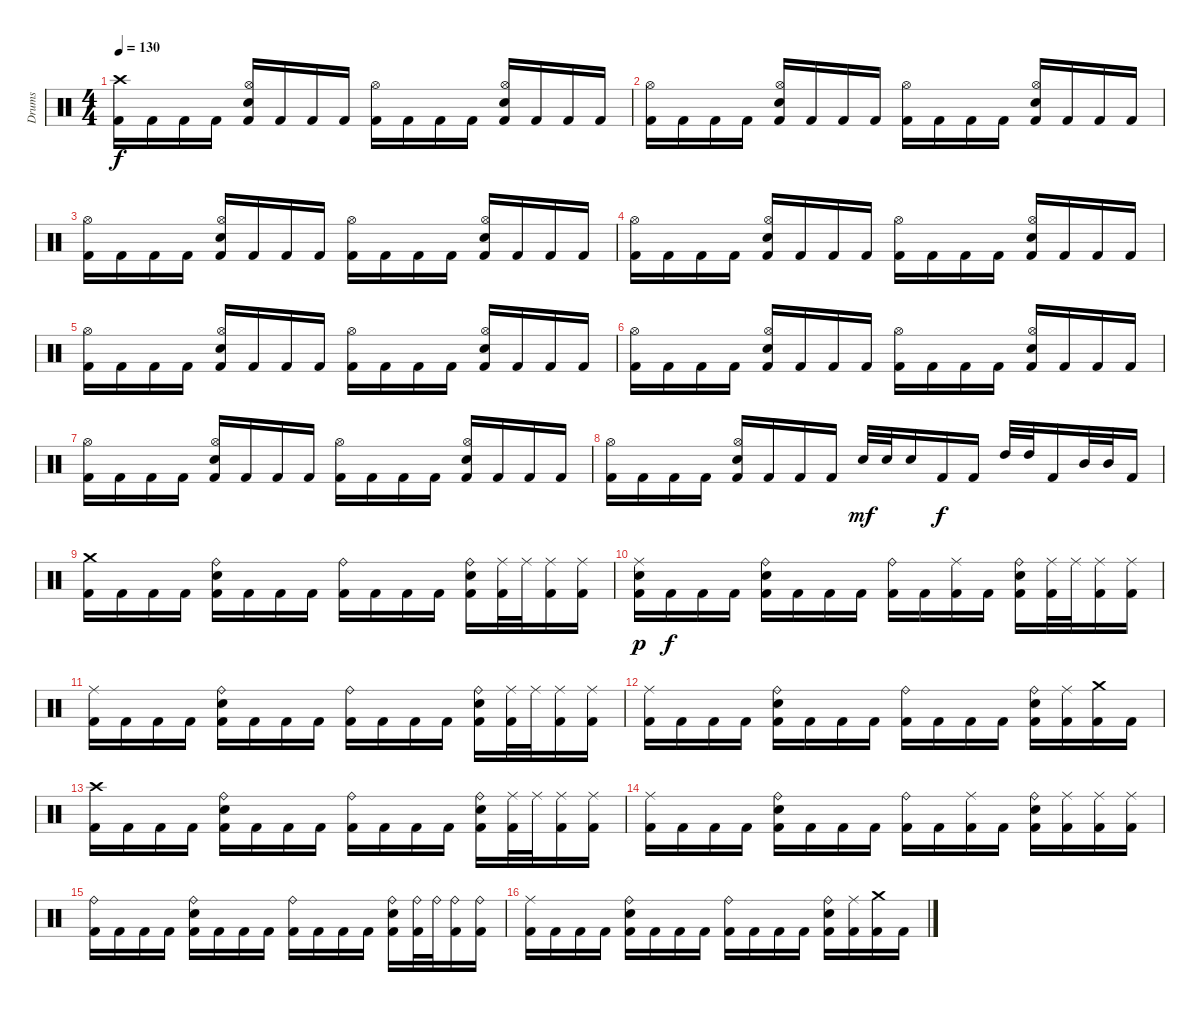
\track ("Drums" "Drums") {instrument percussion}
\staff {score}
\articulation defaults
\ts (4 4)
\tempo 130
\clef neutral
\ks c
("Crash high (hit)" "Kick (hit) 2").16{dy f} "Kick (hit) 2".16 "Kick (hit) 2".16 "Kick (hit) 2".16 ("Hi-Hat (open)" "Snare (hit) 2" "Kick (hit) 2").16 "Kick (hit) 2".16 "Kick (hit) 2".16 "Kick (hit) 2".16 ("Hi-Hat (open)" "Kick (hit) 2").16 "Kick (hit) 2".16 "Kick (hit) 2".16 "Kick (hit) 2".16 ("Hi-Hat (open)" "Snare (hit) 2" "Kick (hit) 2").16 "Kick (hit) 2".16 "Kick (hit) 2".16 "Kick (hit) 2".16 |
("Hi-Hat (open)" "Kick (hit) 2").16 "Kick (hit) 2".16 "Kick (hit) 2".16 "Kick (hit) 2".16 ("Hi-Hat (open)" "Snare (hit) 2" "Kick (hit) 2").16 "Kick (hit) 2".16 "Kick (hit) 2".16 "Kick (hit) 2".16 ("Hi-Hat (open)" "Kick (hit) 2").16 "Kick (hit) 2".16 "Kick (hit) 2".16 "Kick (hit) 2".16 ("Hi-Hat (open)" "Snare (hit) 2" "Kick (hit) 2").16 "Kick (hit) 2".16 "Kick (hit) 2".16 "Kick (hit) 2".16 |
("Hi-Hat (open)" "Kick (hit) 2").16 "Kick (hit) 2".16 "Kick (hit) 2".16 "Kick (hit) 2".16 ("Hi-Hat (open)" "Snare (hit) 2" "Kick (hit) 2").16 "Kick (hit) 2".16 "Kick (hit) 2".16 "Kick (hit) 2".16 ("Hi-Hat (open)" "Kick (hit) 2").16 "Kick (hit) 2".16 "Kick (hit) 2".16 "Kick (hit) 2".16 ("Hi-Hat (open)" "Snare (hit) 2" "Kick (hit) 2").16 "Kick (hit) 2".16 "Kick (hit) 2".16 "Kick (hit) 2".16 |
("Hi-Hat (open)" "Kick (hit) 2").16 "Kick (hit) 2".16 "Kick (hit) 2".16 "Kick (hit) 2".16 ("Hi-Hat (open)" "Snare (hit) 2" "Kick (hit) 2").16 "Kick (hit) 2".16 "Kick (hit) 2".16 "Kick (hit) 2".16 ("Hi-Hat (open)" "Kick (hit) 2").16 "Kick (hit) 2".16 "Kick (hit) 2".16 "Kick (hit) 2".16 ("Hi-Hat (open)" "Snare (hit) 2" "Kick (hit) 2").16 "Kick (hit) 2".16 "Kick (hit) 2".16 "Kick (hit) 2".16 |
("Hi-Hat (open)" "Kick (hit) 2").16 "Kick (hit) 2".16 "Kick (hit) 2".16 "Kick (hit) 2".16 ("Hi-Hat (open)" "Snare (hit) 2" "Kick (hit) 2").16 "Kick (hit) 2".16 "Kick (hit) 2".16 "Kick (hit) 2".16 ("Hi-Hat (open)" "Kick (hit) 2").16 "Kick (hit) 2".16 "Kick (hit) 2".16 "Kick (hit) 2".16 ("Hi-Hat (open)" "Snare (hit) 2" "Kick (hit) 2").16 "Kick (hit) 2".16 "Kick (hit) 2".16 "Kick (hit) 2".16 |
("Hi-Hat (open)" "Kick (hit) 2").16 "Kick (hit) 2".16 "Kick (hit) 2".16 "Kick (hit) 2".16 ("Hi-Hat (open)" "Snare (hit) 2" "Kick (hit) 2").16 "Kick (hit) 2".16 "Kick (hit) 2".16 "Kick (hit) 2".16 ("Hi-Hat (open)" "Kick (hit) 2").16 "Kick (hit) 2".16 "Kick (hit) 2".16 "Kick (hit) 2".16 ("Hi-Hat (open)" "Snare (hit) 2" "Kick (hit) 2").16 "Kick (hit) 2".16 "Kick (hit) 2".16 "Kick (hit) 2".16 |
("Hi-Hat (open)" "Kick (hit) 2").16 "Kick (hit) 2".16 "Kick (hit) 2".16 "Kick (hit) 2".16 ("Hi-Hat (open)" "Snare (hit) 2" "Kick (hit) 2").16 "Kick (hit) 2".16 "Kick (hit) 2".16 "Kick (hit) 2".16 ("Hi-Hat (open)" "Kick (hit) 2").16 "Kick (hit) 2".16 "Kick (hit) 2".16 "Kick (hit) 2".16 ("Hi-Hat (open)" "Snare (hit) 2" "Kick (hit) 2").16 "Kick (hit) 2".16 "Kick (hit) 2".16 "Kick (hit) 2".16 |
("Hi-Hat (open)" "Kick (hit) 2").16 "Kick (hit) 2".16 "Kick (hit) 2".16 "Kick (hit) 2".16 ("Hi-Hat (open)" "Snare (hit) 2" "Kick (hit) 2").16 "Kick (hit) 2".16 "Kick (hit) 2".16 "Kick (hit) 2".16 "Snare (hit) 2".32{dy mf} "Snare (hit) 2".32 "Snare (hit) 2".16 "Kick (hit) 2".16{dy f} "Kick (hit) 2".16 "High Tom (hit)".32 "High Tom (hit)".32 "Kick (hit) 2".16 "Mid Tom (hit)".32 "Mid Tom (hit)".32 "Kick (hit) 2".16 |
("Crash medium (hit)" "Kick (hit) 2").16 "Kick (hit) 2".16 "Kick (hit) 2".16 "Kick (hit) 2".16 ("Ride (bell)" "Snare (hit) 2" "Kick (hit) 2").16 "Kick (hit) 2".16 "Kick (hit) 2".16 "Kick (hit) 2".16 ("Ride (bell)" "Kick (hit) 2").16 "Kick (hit) 2".16 "Kick (hit) 2".16 "Kick (hit) 2".16 ("Ride (bell)" "Snare (hit) 2" "Kick (hit) 2").16 ("Ride (middle)" "Kick (hit) 2").32 "Ride (middle)".32 ("Ride (middle)" "Kick (hit) 2").16 ("Ride (middle)" "Kick (hit) 2").16 |
("Ride (middle)" "Snare (hit) 2" "Kick (hit) 2").16{dy p} "Kick (hit) 2".16{dy f} "Kick (hit) 2".16 "Kick (hit) 2".16 ("Ride (bell)" "Snare (hit) 2" "Kick (hit) 2").16 "Kick (hit) 2".16 "Kick (hit) 2".16 "Kick (hit) 2".16 ("Ride (bell)" "Kick (hit) 2").16 "Kick (hit) 2".16 ("Ride (middle)" "Kick (hit) 2").16 "Kick (hit) 2".16 ("Ride (bell)" "Snare (hit) 2" "Kick (hit) 2").16 ("Ride (middle)" "Kick (hit) 2").32 "Ride (middle)".32 ("Ride (middle)" "Kick (hit) 2").16 ("Ride (middle)" "Kick (hit) 2").16 |
("Ride (middle)" "Kick (hit) 2").16 "Kick (hit) 2".16 "Kick (hit) 2".16 "Kick (hit) 2".16 ("Ride (bell)" "Snare (hit) 2" "Kick (hit) 2").16 "Kick (hit) 2".16 "Kick (hit) 2".16 "Kick (hit) 2".16 ("Ride (bell)" "Kick (hit) 2").16 "Kick (hit) 2".16 "Kick (hit) 2".16 "Kick (hit) 2".16 ("Ride (bell)" "Snare (hit) 2" "Kick (hit) 2").16 ("Ride (middle)" "Kick (hit) 2").32 "Ride (middle)".32 ("Ride (middle)" "Kick (hit) 2").16 ("Ride (middle)" "Kick (hit) 2").16 |
("Ride (middle)" "Kick (hit) 2").16 "Kick (hit) 2".16 "Kick (hit) 2".16 "Kick (hit) 2".16 ("Ride (bell)" "Snare (hit) 2" "Kick (hit) 2").16 "Kick (hit) 2".16 "Kick (hit) 2".16 "Kick (hit) 2".16 ("Ride (bell)" "Kick (hit) 2").16 "Kick (hit) 2".16 "Kick (hit) 2".16 "Kick (hit) 2".16 ("Ride (bell)" "Snare (hit) 2" "Kick (hit) 2").16 ("Ride (middle)" "Kick (hit) 2").16 ("Crash medium (hit)" "Kick (hit) 2").16 "Kick (hit) 2".16 |
("Crash high (hit)" "Kick (hit) 2").16 "Kick (hit) 2".16 "Kick (hit) 2".16 "Kick (hit) 2".16 ("Ride (bell)" "Snare (hit) 2" "Kick (hit) 2").16 "Kick (hit) 2".16 "Kick (hit) 2".16 "Kick (hit) 2".16 ("Ride (bell)" "Kick (hit) 2").16 "Kick (hit) 2".16 "Kick (hit) 2".16 "Kick (hit) 2".16 ("Ride (bell)" "Snare (hit) 2" "Kick (hit) 2").16 ("Ride (middle)" "Kick (hit) 2").32 "Ride (middle)".32 ("Ride (middle)" "Kick (hit) 2").16 ("Ride (middle)" "Kick (hit) 2").16 |
("Ride (middle)" "Kick (hit) 2").16 "Kick (hit) 2".16 "Kick (hit) 2".16 "Kick (hit) 2".16 ("Ride (bell)" "Snare (hit) 2" "Kick (hit) 2").16 "Kick (hit) 2".16 "Kick (hit) 2".16 "Kick (hit) 2".16 ("Ride (bell)" "Kick (hit) 2").16 "Kick (hit) 2".16 ("Ride (middle)" "Kick (hit) 2").16 "Kick (hit) 2".16 ("Ride (bell)" "Snare (hit) 2" "Kick (hit) 2").16 ("Ride (middle)" "Kick (hit) 2").16 ("Ride (middle)" "Kick (hit) 2").16 ("Ride (middle)" "Kick (hit) 2").16 |
("Ride (bell)" "Kick (hit) 2").16 "Kick (hit) 2".16 "Kick (hit) 2".16 "Kick (hit) 2".16 ("Ride (bell)" "Snare (hit) 2" "Kick (hit) 2").16 "Kick (hit) 2".16 "Kick (hit) 2".16 "Kick (hit) 2".16 ("Ride (bell)" "Kick (hit) 2").16 "Kick (hit) 2".16 "Kick (hit) 2".16 "Kick (hit) 2".16 ("Ride (bell)" "Snare (hit) 2" "Kick (hit) 2").16 ("Ride (bell)" "Kick (hit) 2").32 "Ride (bell)".32 ("Ride (bell)" "Kick (hit) 2").16 ("Ride (bell)" "Kick (hit) 2").16 |
("Ride (middle)" "Kick (hit) 2").16 "Kick (hit) 2".16 "Kick (hit) 2".16 "Kick (hit) 2".16 ("Ride (bell)" "Snare (hit) 2" "Kick (hit) 2").16 "Kick (hit) 2".16 "Kick (hit) 2".16 "Kick (hit) 2".16 ("Ride (bell)" "Kick (hit) 2").16 "Kick (hit) 2".16 "Kick (hit) 2".16 "Kick (hit) 2".16 ("Ride (bell)" "Snare (hit) 2" "Kick (hit) 2").16 ("Ride (middle)" "Kick (hit) 2").16 ("Crash medium (hit)" "Kick (hit) 2").16 "Kick (hit) 2".16
